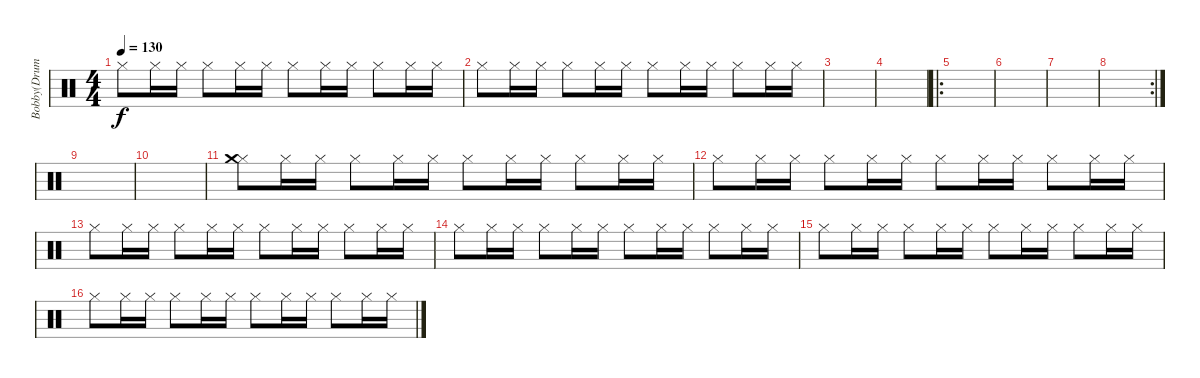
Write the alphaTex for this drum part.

\track ("Bobby(DrumSynth)" "Bobby(Drum") {instrument percussion}
\staff {score}
\articulation defaults
\ts (4 4)
\tempo 130
\clef neutral
\ks c "Hi-Hat (closed)".8{dy f} "Hi-Hat (closed)".16 "Hi-Hat (closed)".16 "Hi-Hat (closed)".8 "Hi-Hat (closed)".16 "Hi-Hat (closed)".16 "Hi-Hat (closed)".8 "Hi-Hat (closed)".16 "Hi-Hat (closed)".16 "Hi-Hat (closed)".8 "Hi-Hat (closed)".16 "Hi-Hat (closed)".16
|
"Hi-Hat (closed)".8 "Hi-Hat (closed)".16 "Hi-Hat (closed)".16 "Hi-Hat (closed)".8 "Hi-Hat (closed)".16 "Hi-Hat (closed)".16 "Hi-Hat (closed)".8 "Hi-Hat (closed)".16 "Hi-Hat (closed)".16 "Hi-Hat (closed)".8 "Hi-Hat (closed)".16 "Hi-Hat (closed)".16 |
|
|
\ro
|
|
|
\rc 2
|
|
|
("Hi-Hat (closed)" "Crash medium (hit)").8 "Hi-Hat (closed)".16 "Hi-Hat (closed)".16 "Hi-Hat (closed)".8 "Hi-Hat (closed)".16 "Hi-Hat (closed)".16 "Hi-Hat (closed)".8 "Hi-Hat (closed)".16 "Hi-Hat (closed)".16 "Hi-Hat (closed)".8 "Hi-Hat (closed)".16 "Hi-Hat (closed)".16 |
"Hi-Hat (closed)".8 "Hi-Hat (closed)".16 "Hi-Hat (closed)".16 "Hi-Hat (closed)".8 "Hi-Hat (closed)".16 "Hi-Hat (closed)".16 "Hi-Hat (closed)".8 "Hi-Hat (closed)".16 "Hi-Hat (closed)".16 "Hi-Hat (closed)".8 "Hi-Hat (closed)".16 "Hi-Hat (closed)".16 |
"Hi-Hat (closed)".8 "Hi-Hat (closed)".16 "Hi-Hat (closed)".16 "Hi-Hat (closed)".8 "Hi-Hat (closed)".16 "Hi-Hat (closed)".16 "Hi-Hat (closed)".8 "Hi-Hat (closed)".16 "Hi-Hat (closed)".16 "Hi-Hat (closed)".8 "Hi-Hat (closed)".16 "Hi-Hat (closed)".16 |
"Hi-Hat (closed)".8 "Hi-Hat (closed)".16 "Hi-Hat (closed)".16 "Hi-Hat (closed)".8 "Hi-Hat (closed)".16 "Hi-Hat (closed)".16 "Hi-Hat (closed)".8 "Hi-Hat (closed)".16 "Hi-Hat (closed)".16 "Hi-Hat (closed)".8 "Hi-Hat (closed)".16 "Hi-Hat (closed)".16 |
"Hi-Hat (closed)".8 "Hi-Hat (closed)".16 "Hi-Hat (closed)".16 "Hi-Hat (closed)".8 "Hi-Hat (closed)".16 "Hi-Hat (closed)".16 "Hi-Hat (closed)".8 "Hi-Hat (closed)".16 "Hi-Hat (closed)".16 "Hi-Hat (closed)".8 "Hi-Hat (closed)".16 "Hi-Hat (closed)".16 |
"Hi-Hat (closed)".8 "Hi-Hat (closed)".16 "Hi-Hat (closed)".16 "Hi-Hat (closed)".8 "Hi-Hat (closed)".16 "Hi-Hat (closed)".16 "Hi-Hat (closed)".8 "Hi-Hat (closed)".16 "Hi-Hat (closed)".16 "Hi-Hat (closed)".8 "Hi-Hat (closed)".16 "Hi-Hat (closed)".16
